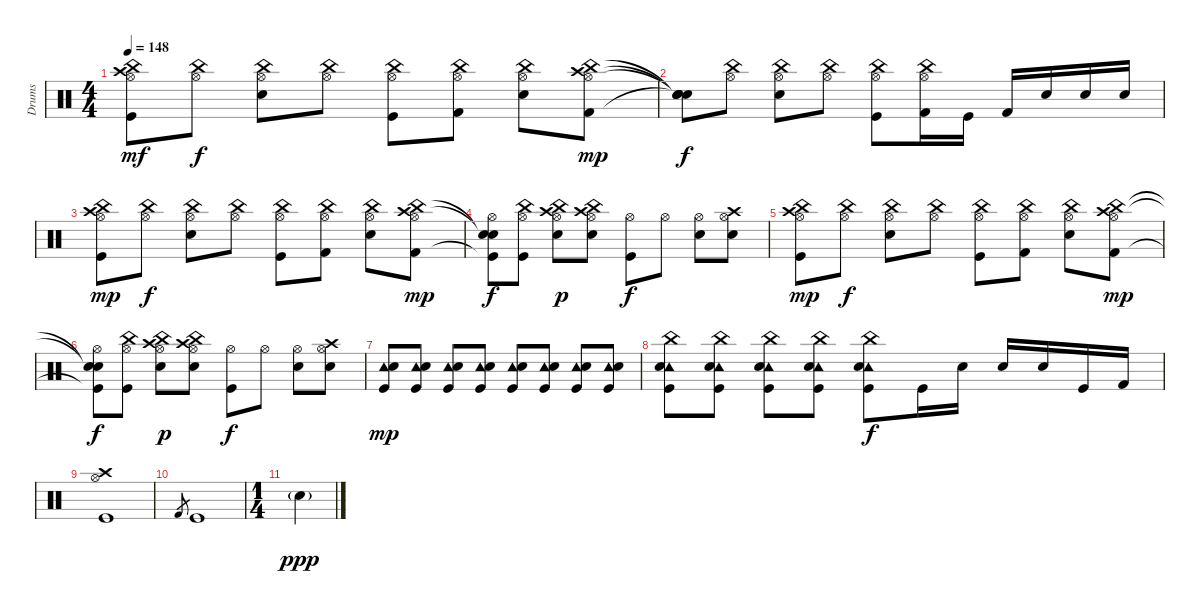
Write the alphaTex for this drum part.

\track ("Drums" "Drums") {instrument percussion}
\staff {score}
\articulation defaults
\ts (4 4)
\tempo 148
\clef neutral
\ks c
("Crash high (hit)" "Hi-Hat (open)" "China (hit)" "Kick (hit)").8{dy mf} ("Hi-Hat (open)" "China (hit)").8{dy f} ("Hi-Hat (open)" "China (hit)" "Snare (hit) 2").8 ("Hi-Hat (open)" "China (hit)").8 ("Hi-Hat (open)" "China (hit)" "Kick (hit)").8 ("Hi-Hat (open)" "China (hit)" "Kick (hit) 2").8 ("Hi-Hat (open)" "China (hit)" "Snare (hit) 2").8 ("Crash high (hit)" "Hi-Hat (open)" "China (hit)" "Kick (hit) 2").8{dy mp} |
("Snare (hit)"{t} "Snare (hit)"{t} "Snare (hit)"{t} "Snare (hit)"{t}).8{dy f} ("Hi-Hat (open)" "China (hit)").8 ("Hi-Hat (open)" "China (hit)" "Snare (hit) 2").8 ("Hi-Hat (open)" "China (hit)").8 ("Hi-Hat (open)" "China (hit)" "Kick (hit)").8 ("Hi-Hat (open)" "China (hit)" "Kick (hit) 2").16 "Kick (hit)".16 "Kick (hit) 2".16 "Snare (hit) 2".16 "Electric Snare (hit)".16 "Snare (hit) 2".16 |
("Crash high (hit)" "Hi-Hat (open)" "China (hit)" "Kick (hit)").8{dy mp} ("Hi-Hat (open)" "China (hit)").8{dy f} ("Hi-Hat (open)" "China (hit)" "Snare (hit) 2").8 ("Hi-Hat (open)" "China (hit)").8 ("Hi-Hat (open)" "China (hit)" "Kick (hit)").8 ("Hi-Hat (open)" "China (hit)" "Kick (hit) 2").8 ("Hi-Hat (open)" "China (hit)" "Snare (hit) 2").8 ("Crash high (hit)" "Hi-Hat (open)" "China (hit)" "Kick (hit) 2").8{dy mp} |
("Snare (hit)"{t} "Hi-Hat (open)" "Snare (hit)"{t} "Kick (hit)"{t}).8{dy f} ("Hi-Hat (open)" "China (hit)" "Kick (hit)").8 ("Crash high (hit)" "Hi-Hat (open)" "China (hit)" "Snare (hit) 2").8{dy p} ("Crash high (hit)" "Hi-Hat (open)" "China (hit)" "Snare (hit) 2").8 ("Hi-Hat (open)" "Kick (hit)").8{dy f} "Hi-Hat (open)".8 ("Hi-Hat (open)" "Snare (hit) 2").8 ("Crash high (hit)" "Hi-Hat (open)" "Snare (hit) 2").8 |
("Crash high (hit)" "Hi-Hat (open)" "China (hit)" "Kick (hit)").8{dy mp} ("Hi-Hat (open)" "China (hit)").8{dy f} ("Hi-Hat (open)" "China (hit)" "Snare (hit) 2").8 ("Hi-Hat (open)" "China (hit)").8 ("Hi-Hat (open)" "China (hit)" "Kick (hit)").8 ("Hi-Hat (open)" "China (hit)" "Kick (hit) 2").8 ("Hi-Hat (open)" "China (hit)" "Snare (hit) 2").8 ("Crash high (hit)" "Hi-Hat (open)" "China (hit)" "Kick (hit) 2").8{dy mp} |
("Snare (hit)"{t} "Hi-Hat (open)" "Snare (hit)"{t} "Kick (hit)"{t}).8{dy f} ("Hi-Hat (open)" "China (hit)" "Kick (hit)").8 ("Crash high (hit)" "Hi-Hat (open)" "China (hit)" "Snare (hit) 2").8{dy p} ("Crash high (hit)" "Hi-Hat (open)" "China (hit)" "Snare (hit) 2").8 ("Hi-Hat (open)" "Kick (hit)").8{dy f} "Hi-Hat (open)".8 ("Hi-Hat (open)" "Snare (hit) 2").8 ("Crash high (hit)" "Hi-Hat (open)" "Snare (hit) 2").8 |
("Tambourine (hit)" "Electric Snare (hit)" "Kick (hit)").8{dy mp} ("Tambourine (hit)" "Electric Snare (hit)" "Kick (hit)").8 ("Tambourine (hit)" "Electric Snare (hit)" "Kick (hit)").8 ("Tambourine (hit)" "Electric Snare (hit)" "Kick (hit)").8 ("Tambourine (hit)" "Electric Snare (hit)" "Kick (hit)").8 ("Tambourine (hit)" "Electric Snare (hit)" "Kick (hit)").8 ("Tambourine (hit)" "Electric Snare (hit)" "Kick (hit)").8 ("Tambourine (hit)" "Electric Snare (hit)" "Kick (hit)").8 |
("China (hit)" "Tambourine (hit)" "Electric Snare (hit)" "Kick (hit)").8 ("China (hit)" "Tambourine (hit)" "Electric Snare (hit)" "Kick (hit)").8 ("China (hit)" "Tambourine (hit)" "Electric Snare (hit)" "Kick (hit)").8 ("China (hit)" "Tambourine (hit)" "Electric Snare (hit)" "Kick (hit)").8 ("China (hit)" "Tambourine (hit)" "Electric Snare (hit)" "Kick (hit)").8{dy f} "Kick (hit)".16 "Snare (hit) 2".16 "Electric Snare (hit)".16 "Snare (hit) 2".16 "Kick (hit)".16 "Kick (hit) 2".16 |
("Crash high (hit)" "Hi-Hat (open)" "Kick (hit)").1 |
"Kick (hit) 2".8{gr} "Kick (hit)".1 |
\ts (1 4)
"Snare (hit)"{g}.4{dy ppp}
